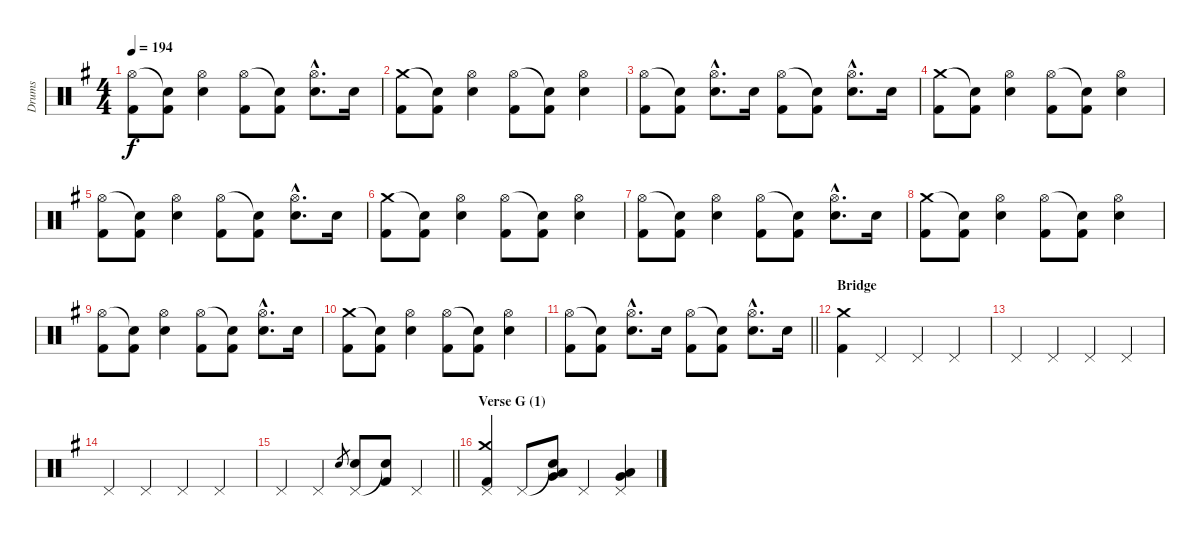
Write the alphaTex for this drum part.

\track ("Drums" "Drums") {instrument percussion}
\staff {score}
\articulation defaults
\ts (4 4)
\tempo 194
\clef neutral
\ks eminor
("Hi-Hat (open)" "Kick (hit) 2").8{dy f} ("Snare (hit)"{t} "Kick (hit) 2").8 ("Hi-Hat (open)" "Electric Snare (hit)").4 ("Hi-Hat (open)" "Kick (hit) 2").8 ("Snare (hit)"{t} "Kick (hit) 2").8 ("Hi-Hat (open)"{hac} "Electric Snare (hit)"{hac}).8{d} "Electric Snare (hit)".16 |
("Crash medium (hit)" "Kick (hit) 2").8 ("Snare (hit)"{t} "Kick (hit) 2").8 ("Hi-Hat (open)" "Electric Snare (hit)").4 ("Hi-Hat (open)" "Kick (hit) 2").8 ("Snare (hit)"{t} "Kick (hit) 2").8 ("Hi-Hat (open)" "Electric Snare (hit)").4 |
("Hi-Hat (open)" "Kick (hit) 2").8 ("Snare (hit)"{t} "Kick (hit) 2").8 ("Hi-Hat (open)"{hac} "Electric Snare (hit)"{hac}).8{d} "Electric Snare (hit)".16 ("Hi-Hat (open)" "Kick (hit) 2").8 ("Snare (hit)"{t} "Kick (hit) 2").8 ("Hi-Hat (open)"{hac} "Electric Snare (hit)"{hac}).8{d} "Electric Snare (hit)".16 |
("Crash medium (hit)" "Kick (hit) 2").8 ("Snare (hit)"{t} "Kick (hit) 2").8 ("Hi-Hat (open)" "Electric Snare (hit)").4 ("Hi-Hat (open)" "Kick (hit) 2").8 ("Snare (hit)"{t} "Kick (hit) 2").8 ("Hi-Hat (open)" "Electric Snare (hit)").4 |
("Hi-Hat (open)" "Kick (hit) 2").8 ("Snare (hit)"{t} "Kick (hit) 2").8 ("Hi-Hat (open)" "Electric Snare (hit)").4 ("Hi-Hat (open)" "Kick (hit) 2").8 ("Snare (hit)"{t} "Kick (hit) 2").8 ("Hi-Hat (open)"{hac} "Electric Snare (hit)"{hac}).8{d} "Electric Snare (hit)".16 |
("Crash medium (hit)" "Kick (hit) 2").8 ("Snare (hit)"{t} "Kick (hit) 2").8 ("Hi-Hat (open)" "Electric Snare (hit)").4 ("Hi-Hat (open)" "Kick (hit) 2").8 ("Snare (hit)"{t} "Kick (hit) 2").8 ("Hi-Hat (open)" "Electric Snare (hit)").4 |
("Hi-Hat (open)" "Kick (hit) 2").8 ("Snare (hit)"{t} "Kick (hit) 2").8 ("Hi-Hat (open)" "Electric Snare (hit)").4 ("Hi-Hat (open)" "Kick (hit) 2").8 ("Snare (hit)"{t} "Kick (hit) 2").8 ("Hi-Hat (open)"{hac} "Electric Snare (hit)"{hac}).8{d} "Electric Snare (hit)".16 |
("Crash medium (hit)" "Kick (hit) 2").8 ("Snare (hit)"{t} "Kick (hit) 2").8 ("Hi-Hat (open)" "Electric Snare (hit)").4 ("Hi-Hat (open)" "Kick (hit) 2").8 ("Snare (hit)"{t} "Kick (hit) 2").8 ("Hi-Hat (open)" "Electric Snare (hit)").4 |
("Hi-Hat (open)" "Kick (hit) 2").8 ("Snare (hit)"{t} "Kick (hit) 2").8 ("Hi-Hat (open)" "Electric Snare (hit)").4 ("Hi-Hat (open)" "Kick (hit) 2").8 ("Snare (hit)"{t} "Kick (hit) 2").8 ("Hi-Hat (open)"{hac} "Electric Snare (hit)"{hac}).8{d} "Electric Snare (hit)".16 |
("Crash medium (hit)" "Kick (hit) 2").8 ("Snare (hit)"{t} "Kick (hit) 2").8 ("Hi-Hat (open)" "Electric Snare (hit)").4 ("Hi-Hat (open)" "Kick (hit) 2").8 ("Snare (hit)"{t} "Kick (hit) 2").8 ("Hi-Hat (open)" "Electric Snare (hit)").4 |
\barLineRight lightlight
("Hi-Hat (open)" "Kick (hit) 2").8 ("Snare (hit)"{t} "Kick (hit) 2").8 ("Hi-Hat (open)"{hac} "Electric Snare (hit)"{hac}).8{d} "Electric Snare (hit)".16 ("Hi-Hat (open)" "Kick (hit) 2").8 ("Snare (hit)"{t} "Kick (hit) 2").8 ("Hi-Hat (open)"{hac} "Electric Snare (hit)"{hac}).8{d} "Electric Snare (hit)".16 |
\section ("" "Bridge")
("Crash medium (hit)" "Kick (hit) 2").4 "Pedal Hi-Hat (hit)".4 "Pedal Hi-Hat (hit)".4 "Pedal Hi-Hat (hit)".4 |
"Pedal Hi-Hat (hit)".4 "Pedal Hi-Hat (hit)".4 "Pedal Hi-Hat (hit)".4 "Pedal Hi-Hat (hit)".4 |
"Pedal Hi-Hat (hit)".4 "Pedal Hi-Hat (hit)".4 "Pedal Hi-Hat (hit)".4 "Pedal Hi-Hat (hit)".4 |
\barLineRight lightlight "Pedal Hi-Hat (hit)".4 "Pedal Hi-Hat (hit)".4 "Electric Snare (hit)".8{gr}
("Pedal Hi-Hat (hit)" "Electric Snare (hit)").8 ("Snare (hit)"{t} "Kick (hit) 2").8 "Pedal Hi-Hat (hit)".4 |
\section ("" "Verse G (1)")
("Crash medium (hit)" "Pedal Hi-Hat (hit)" "Kick (hit) 2").4 "Pedal Hi-Hat (hit)".8 ("Snare (hit)"{t} "Very Low Tom (hit)" "Low Floor Tom (hit)").8 "Pedal Hi-Hat (hit)".4 ("Pedal Hi-Hat (hit)" "Low Tom (hit)" "Very Low Tom (hit)").4
